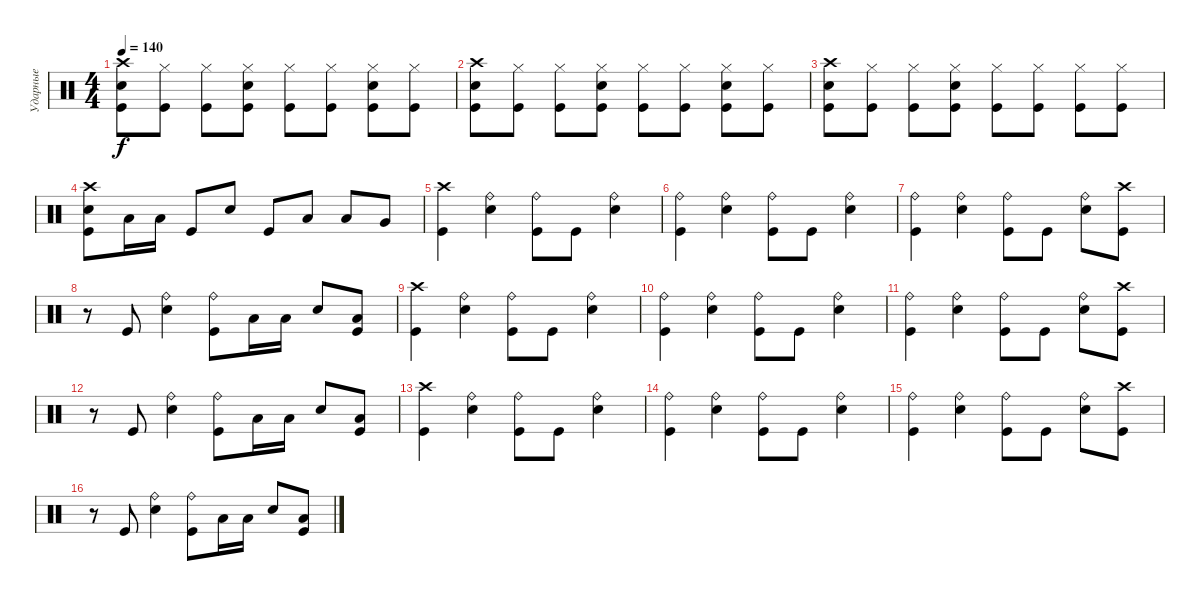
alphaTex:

\track ("Ударные" "Ударные") {instrument percussion}
\staff {score}
\articulation defaults
\ts (4 4)
\tempo 140
\clef neutral
\ks c
("Crash high (hit)" "Electric Snare (hit)" "Kick (hit)").8{dy f} ("Hi-Hat (closed)" "Kick (hit)").8 ("Hi-Hat (closed)" "Kick (hit)").8 ("Hi-Hat (closed)" "Electric Snare (hit)" "Kick (hit)").8 ("Hi-Hat (closed)" "Kick (hit)").8 ("Hi-Hat (closed)" "Kick (hit)").8 ("Hi-Hat (closed)" "Electric Snare (hit)" "Kick (hit)").8 ("Hi-Hat (closed)" "Kick (hit)").8 |
("Crash high (hit)" "Electric Snare (hit)" "Kick (hit)").8 ("Hi-Hat (closed)" "Kick (hit)").8 ("Hi-Hat (closed)" "Kick (hit)").8 ("Hi-Hat (closed)" "Electric Snare (hit)" "Kick (hit)").8 ("Hi-Hat (closed)" "Kick (hit)").8 ("Hi-Hat (closed)" "Kick (hit)").8 ("Hi-Hat (closed)" "Electric Snare (hit)" "Kick (hit)").8 ("Hi-Hat (closed)" "Kick (hit)").8 |
("Crash high (hit)" "Electric Snare (hit)" "Kick (hit)").8 ("Hi-Hat (closed)" "Kick (hit)").8 ("Hi-Hat (closed)" "Kick (hit)").8 ("Hi-Hat (closed)" "Electric Snare (hit)" "Kick (hit)").8 ("Hi-Hat (closed)" "Kick (hit)").8 ("Hi-Hat (closed)" "Kick (hit)").8 ("Hi-Hat (closed)" "Kick (hit)").8 ("Hi-Hat (closed)" "Kick (hit)").8 |
("Crash high (hit)" "Electric Snare (hit)" "Kick (hit)").8 "Low Tom (hit)".16 "Low Tom (hit)".16 "Kick (hit)".8 "Electric Snare (hit)".8 "Kick (hit)".8 "Low Tom (hit)".8 "Low Tom (hit)".8 "Very Low Tom (hit)".8 |
("Crash high (hit)" "Kick (hit)").4 ("Ride (bell)" "Electric Snare (hit)").4 ("Ride (bell)" "Kick (hit)").8 "Kick (hit)".8 ("Ride (bell)" "Electric Snare (hit)").4 |
("Ride (bell)" "Kick (hit)").4 ("Ride (bell)" "Electric Snare (hit)").4 ("Ride (bell)" "Kick (hit)").8 "Kick (hit)".8 ("Ride (bell)" "Electric Snare (hit)").4 |
("Ride (bell)" "Kick (hit)").4 ("Ride (bell)" "Electric Snare (hit)").4 ("Ride (bell)" "Kick (hit)").8 "Kick (hit)".8 ("Ride (bell)" "Electric Snare (hit)").8 ("Crash high (hit)" "Kick (hit)").8 |
r.8 "Kick (hit)".8 ("Ride (bell)" "Electric Snare (hit)").4 ("Ride (bell)" "Kick (hit)").8 "Low Tom (hit)".16 "Low Tom (hit)".16 "Electric Snare (hit)".8 ("Low Tom (hit)" "Kick (hit)").8 |
("Crash high (hit)" "Kick (hit)").4 ("Ride (bell)" "Electric Snare (hit)").4 ("Ride (bell)" "Kick (hit)").8 "Kick (hit)".8 ("Ride (bell)" "Electric Snare (hit)").4 |
("Ride (bell)" "Kick (hit)").4 ("Ride (bell)" "Electric Snare (hit)").4 ("Ride (bell)" "Kick (hit)").8 "Kick (hit)".8 ("Ride (bell)" "Electric Snare (hit)").4 |
("Ride (bell)" "Kick (hit)").4 ("Ride (bell)" "Electric Snare (hit)").4 ("Ride (bell)" "Kick (hit)").8 "Kick (hit)".8 ("Ride (bell)" "Electric Snare (hit)").8 ("Crash high (hit)" "Kick (hit)").8 |
r.8 "Kick (hit)".8 ("Ride (bell)" "Electric Snare (hit)").4 ("Ride (bell)" "Kick (hit)").8 "Low Tom (hit)".16 "Low Tom (hit)".16 "Electric Snare (hit)".8 ("Low Tom (hit)" "Kick (hit)").8 |
("Crash high (hit)" "Kick (hit)").4 ("Ride (bell)" "Electric Snare (hit)").4 ("Ride (bell)" "Kick (hit)").8 "Kick (hit)".8 ("Ride (bell)" "Electric Snare (hit)").4 |
("Ride (bell)" "Kick (hit)").4 ("Ride (bell)" "Electric Snare (hit)").4 ("Ride (bell)" "Kick (hit)").8 "Kick (hit)".8 ("Ride (bell)" "Electric Snare (hit)").4 |
("Ride (bell)" "Kick (hit)").4 ("Ride (bell)" "Electric Snare (hit)").4 ("Ride (bell)" "Kick (hit)").8 "Kick (hit)".8 ("Ride (bell)" "Electric Snare (hit)").8 ("Crash high (hit)" "Kick (hit)").8 |
r.8 "Kick (hit)".8 ("Ride (bell)" "Electric Snare (hit)").4 ("Ride (bell)" "Kick (hit)").8 "Low Tom (hit)".16 "Low Tom (hit)".16 "Electric Snare (hit)".8 ("Low Tom (hit)" "Kick (hit)").8
